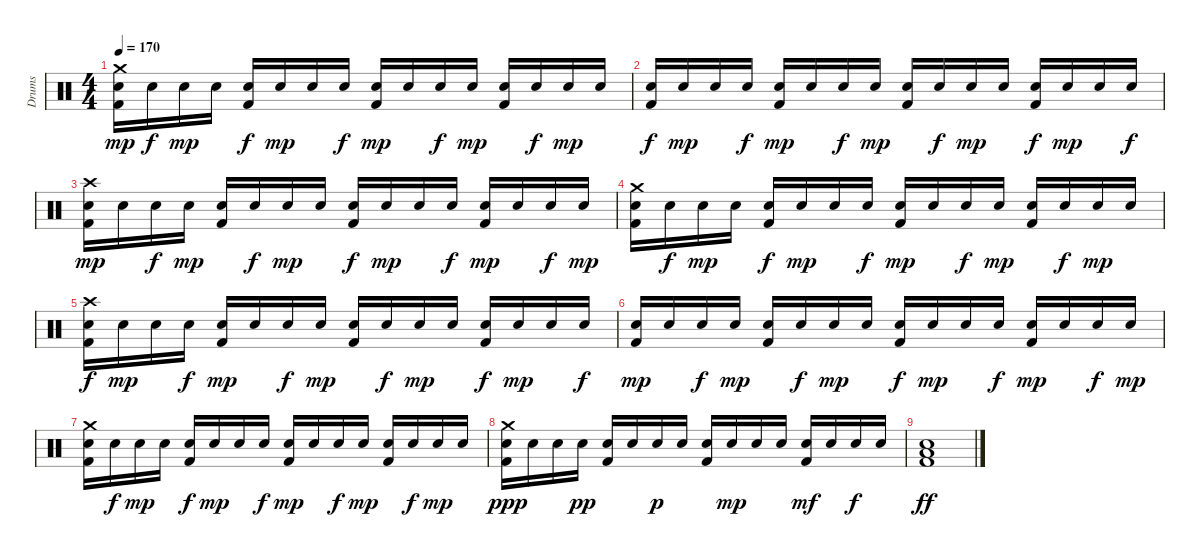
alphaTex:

\track ("Drums" "Drums") {instrument percussion}
\staff {score}
\articulation defaults
\ts (4 4)
\tempo 170
\clef neutral
\ks c
("Crash medium (hit)" "Electric Snare (hit)" "Kick (hit) 2").16{dy mp} "Electric Snare (hit)".16{dy f} "Electric Snare (hit)".16{dy mp} "Electric Snare (hit)".16 ("Electric Snare (hit)" "Kick (hit) 2").16{dy f} "Electric Snare (hit)".16{dy mp} "Electric Snare (hit)".16 "Electric Snare (hit)".16{dy f} ("Electric Snare (hit)" "Kick (hit) 2").16{dy mp} "Electric Snare (hit)".16 "Electric Snare (hit)".16{dy f} "Electric Snare (hit)".16{dy mp} ("Electric Snare (hit)" "Kick (hit) 2").16 "Electric Snare (hit)".16{dy f} "Electric Snare (hit)".16{dy mp} "Electric Snare (hit)".16 |
("Electric Snare (hit)" "Kick (hit) 2").16{dy f} "Electric Snare (hit)".16{dy mp} "Electric Snare (hit)".16 "Electric Snare (hit)".16{dy f} ("Electric Snare (hit)" "Kick (hit) 2").16{dy mp} "Electric Snare (hit)".16 "Electric Snare (hit)".16{dy f} "Electric Snare (hit)".16{dy mp} ("Electric Snare (hit)" "Kick (hit) 2").16 "Electric Snare (hit)".16{dy f} "Electric Snare (hit)".16{dy mp} "Electric Snare (hit)".16 ("Electric Snare (hit)" "Kick (hit) 2").16{dy f} "Electric Snare (hit)".16{dy mp} "Electric Snare (hit)".16 "Electric Snare (hit)".16{dy f} |
("Crash high (hit)" "Electric Snare (hit)" "Kick (hit) 2").16{dy mp} "Electric Snare (hit)".16 "Electric Snare (hit)".16{dy f} "Electric Snare (hit)".16{dy mp} ("Electric Snare (hit)" "Kick (hit) 2").16 "Electric Snare (hit)".16{dy f} "Electric Snare (hit)".16{dy mp} "Electric Snare (hit)".16 ("Electric Snare (hit)" "Kick (hit) 2").16{dy f} "Electric Snare (hit)".16{dy mp} "Electric Snare (hit)".16 "Electric Snare (hit)".16{dy f} ("Electric Snare (hit)" "Kick (hit) 2").16{dy mp} "Electric Snare (hit)".16 "Electric Snare (hit)".16{dy f} "Electric Snare (hit)".16{dy mp} |
("Crash medium (hit)" "Electric Snare (hit)" "Kick (hit) 2").16 "Electric Snare (hit)".16{dy f} "Electric Snare (hit)".16{dy mp} "Electric Snare (hit)".16 ("Electric Snare (hit)" "Kick (hit) 2").16{dy f} "Electric Snare (hit)".16{dy mp} "Electric Snare (hit)".16 "Electric Snare (hit)".16{dy f} ("Electric Snare (hit)" "Kick (hit) 2").16{dy mp} "Electric Snare (hit)".16 "Electric Snare (hit)".16{dy f} "Electric Snare (hit)".16{dy mp} ("Electric Snare (hit)" "Kick (hit) 2").16 "Electric Snare (hit)".16{dy f} "Electric Snare (hit)".16{dy mp} "Electric Snare (hit)".16 |
("Crash high (hit)" "Electric Snare (hit)" "Kick (hit) 2").16{dy f} "Electric Snare (hit)".16{dy mp} "Electric Snare (hit)".16 "Electric Snare (hit)".16{dy f} ("Electric Snare (hit)" "Kick (hit) 2").16{dy mp} "Electric Snare (hit)".16 "Electric Snare (hit)".16{dy f} "Electric Snare (hit)".16{dy mp} ("Electric Snare (hit)" "Kick (hit) 2").16 "Electric Snare (hit)".16{dy f} "Electric Snare (hit)".16{dy mp} "Electric Snare (hit)".16 ("Electric Snare (hit)" "Kick (hit) 2").16{dy f} "Electric Snare (hit)".16{dy mp} "Electric Snare (hit)".16 "Electric Snare (hit)".16{dy f} |
("Electric Snare (hit)" "Kick (hit) 2").16{dy mp} "Electric Snare (hit)".16 "Electric Snare (hit)".16{dy f} "Electric Snare (hit)".16{dy mp} ("Electric Snare (hit)" "Kick (hit) 2").16 "Electric Snare (hit)".16{dy f} "Electric Snare (hit)".16{dy mp} "Electric Snare (hit)".16 ("Electric Snare (hit)" "Kick (hit) 2").16{dy f} "Electric Snare (hit)".16{dy mp} "Electric Snare (hit)".16 "Electric Snare (hit)".16{dy f} ("Electric Snare (hit)" "Kick (hit) 2").16{dy mp} "Electric Snare (hit)".16 "Electric Snare (hit)".16{dy f} "Electric Snare (hit)".16{dy mp} |
("Crash medium (hit)" "Electric Snare (hit)" "Kick (hit) 2").16 "Electric Snare (hit)".16{dy f} "Electric Snare (hit)".16{dy mp} "Electric Snare (hit)".16 ("Electric Snare (hit)" "Kick (hit) 2").16{dy f} "Electric Snare (hit)".16{dy mp} "Electric Snare (hit)".16 "Electric Snare (hit)".16{dy f} ("Electric Snare (hit)" "Kick (hit) 2").16{dy mp} "Electric Snare (hit)".16 "Electric Snare (hit)".16{dy f} "Electric Snare (hit)".16{dy mp} ("Electric Snare (hit)" "Kick (hit) 2").16 "Electric Snare (hit)".16{dy f} "Electric Snare (hit)".16{dy mp} "Electric Snare (hit)".16 |
("Crash medium (hit)" "Electric Snare (hit)" "Kick (hit) 2").16{dy ppp} "Electric Snare (hit)".16 "Electric Snare (hit)".16 "Electric Snare (hit)".16{dy pp} ("Electric Snare (hit)" "Kick (hit) 2").16 "Electric Snare (hit)".16 "Electric Snare (hit)".16{dy p} "Electric Snare (hit)".16 ("Electric Snare (hit)" "Kick (hit) 2").16 "Electric Snare (hit)".16{dy mp} "Electric Snare (hit)".16 "Electric Snare (hit)".16 ("Electric Snare (hit)" "Kick (hit) 2").16{dy mf} "Electric Snare (hit)".16 "Electric Snare (hit)".16{dy f} "Electric Snare (hit)".16 |
("Low Floor Tom (hit)" "Electric Snare (hit)" "Kick (hit) 2").1{dy ff}
